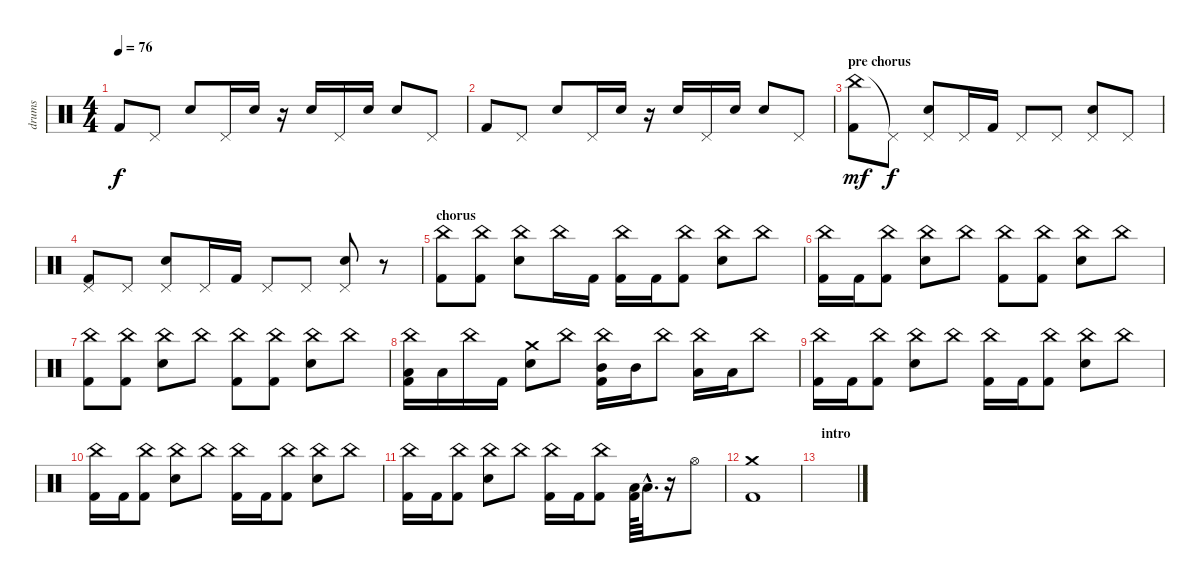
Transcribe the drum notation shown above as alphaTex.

\track ("drums" "drums") {instrument percussion}
\staff {score}
\articulation defaults
\ts (4 4)
\tempo 76
\clef neutral
\ks c "Kick (hit) 2".8{dy f} "Pedal Hi-Hat (hit)".8 "Snare (hit) 2".8 "Pedal Hi-Hat (hit)".16 "Snare (hit) 2".16
r.16 "Snare (hit) 2".16 "Pedal Hi-Hat (hit)".16 "Snare (hit) 2".16 "Snare (hit) 2".8 "Pedal Hi-Hat (hit)".8 |
"Kick (hit) 2".8 "Pedal Hi-Hat (hit)".8 "Snare (hit) 2".8 "Pedal Hi-Hat (hit)".16 "Snare (hit) 2".16 r.16 "Snare (hit) 2".16 "Pedal Hi-Hat (hit)".16 "Snare (hit) 2".16 "Snare (hit) 2".8 "Pedal Hi-Hat (hit)".8 |
\section ("" "pre chorus")
("China (hit)" "Kick (hit) 2").8{dy mf} "Pedal Hi-Hat (hit)"{t}.8{dy f} ("Pedal Hi-Hat (hit)" "Snare (hit) 2").8 "Pedal Hi-Hat (hit)".16 "Kick (hit) 2".16 "Pedal Hi-Hat (hit)".8 "Pedal Hi-Hat (hit)".8 ("Pedal Hi-Hat (hit)" "Snare (hit) 2").8 "Pedal Hi-Hat (hit)".8 |
("Pedal Hi-Hat (hit)" "Kick (hit) 2").8 "Pedal Hi-Hat (hit)".8 ("Pedal Hi-Hat (hit)" "Snare (hit) 2").8 "Pedal Hi-Hat (hit)".16 "Kick (hit) 2".16 "Pedal Hi-Hat (hit)".8 "Pedal Hi-Hat (hit)".8 ("Pedal Hi-Hat (hit)" "Snare (hit) 2").8 r.8 |
\section ("" "chorus")
("China (hit)" "Kick (hit) 2").8 ("China (hit)" "Kick (hit) 2").8 ("China (hit)" "Snare (hit) 2").8 "China (hit)".16 "Kick (hit) 2".16 ("China (hit)" "Kick (hit) 2").16 "Kick (hit) 2".16 ("China (hit)" "Kick (hit) 2").8 ("China (hit)" "Snare (hit) 2").8 "China (hit)".8 |
("China (hit)" "Kick (hit) 2").16 "Kick (hit) 2".16 ("China (hit)" "Kick (hit) 2").8 ("China (hit)" "Snare (hit) 2").8 "China (hit)".8 ("China (hit)" "Kick (hit) 2").8 ("China (hit)" "Kick (hit) 2").8 ("China (hit)" "Snare (hit) 2").8 "China (hit)".8 |
("China (hit)" "Kick (hit) 2").8 ("China (hit)" "Kick (hit) 2").8 ("China (hit)" "Snare (hit) 2").8 "China (hit)".8 ("China (hit)" "Kick (hit) 2").8 ("China (hit)" "Kick (hit) 2").8 ("China (hit)" "Snare (hit) 2").8 "China (hit)".8 |
("China (hit)" "Low Tom (hit)" "Kick (hit) 2").16 "Low Tom (hit)".16 "China (hit)".16 "Kick (hit) 2".16 ("Crash medium (hit)" "Snare (hit) 2").8 "China (hit)".8 ("China (hit)" "Mid Tom (hit)" "Kick (hit) 2").16 "Mid Tom (hit)".16 "China (hit)".8 ("China (hit)" "Low Tom (hit)").16 "Low Tom (hit)".16 "China (hit)".8 |
("China (hit)" "Kick (hit) 2").16 "Kick (hit) 2".16 ("China (hit)" "Kick (hit) 2").8 ("China (hit)" "Snare (hit) 2").8 "China (hit)".8 ("China (hit)" "Kick (hit) 2").16 "Kick (hit) 2".16 ("China (hit)" "Kick (hit) 2").8 ("China (hit)" "Snare (hit) 2").8 "China (hit)".8 |
("China (hit)" "Kick (hit) 2").16 "Kick (hit) 2".16 ("China (hit)" "Kick (hit) 2").8 ("China (hit)" "Snare (hit) 2").8 "China (hit)".8 ("China (hit)" "Kick (hit) 2").16 "Kick (hit) 2".16 ("China (hit)" "Kick (hit) 2").8 ("China (hit)" "Snare (hit) 2").8 "China (hit)".8 |
("China (hit)" "Kick (hit) 2").16 "Kick (hit) 2".16 ("China (hit)" "Kick (hit) 2").8 ("China (hit)" "Snare (hit) 2").8 "China (hit)".8 ("China (hit)" "Kick (hit) 2").16 "Kick (hit) 2".16 ("China (hit)" "Kick (hit) 2").8 ("Low Tom (hit)" "Kick (hit) 2").64 "Low Tom (hit)"{hac}.32{d} r.16 "Hi-Hat (open)".8 |
("Crash medium (hit)" "Kick (hit) 2").1 |
\section ("" "intro")
